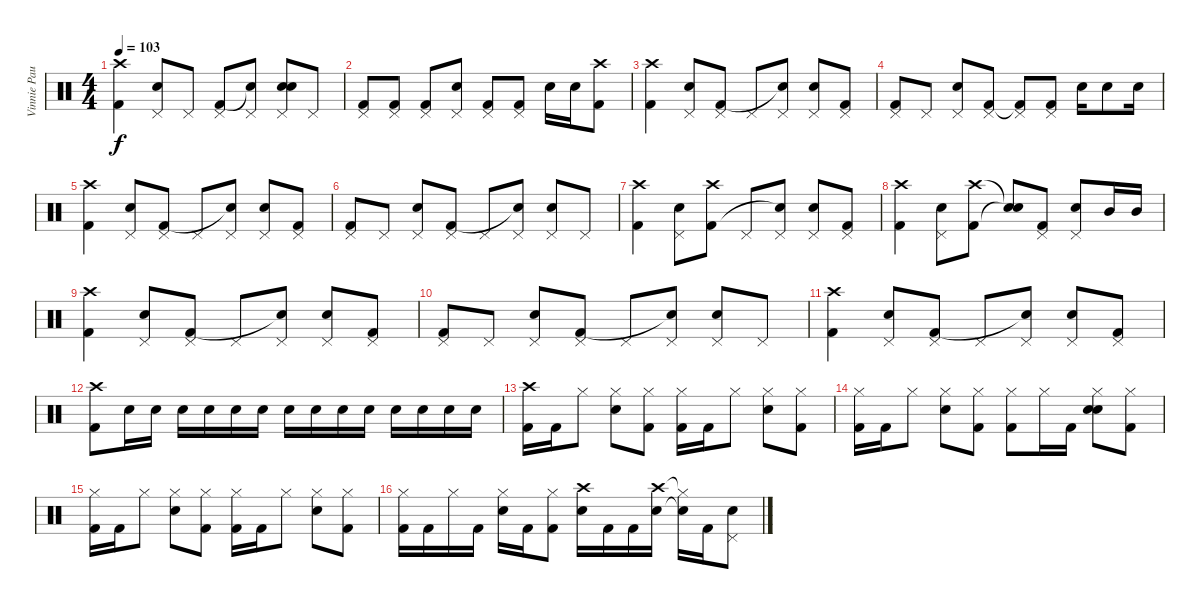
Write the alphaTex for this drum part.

\track ("Vinnie Paul" "Vinnie Pau") {instrument percussion}
\staff {score}
\articulation defaults
\ts (4 4)
\tempo 103
\clef neutral
\ks c
("Crash high (hit)" "Kick (hit) 2").4{dy f} ("Pedal Hi-Hat (hit)" "Electric Snare (hit)").8 "Pedal Hi-Hat (hit)".8 ("Pedal Hi-Hat (hit)" "Kick (hit) 2").8 ("Pedal Hi-Hat (hit)" "Snare (hit)"{t}).8 ("Pedal Hi-Hat (hit)" "Electric Snare (hit)" "Snare (hit)").8 "Pedal Hi-Hat (hit)".8 |
("Pedal Hi-Hat (hit)" "Kick (hit) 2").8 ("Pedal Hi-Hat (hit)" "Kick (hit) 2").8 ("Pedal Hi-Hat (hit)" "Kick (hit) 2").8 ("Pedal Hi-Hat (hit)" "Electric Snare (hit)").8 ("Pedal Hi-Hat (hit)" "Kick (hit) 2").8 ("Pedal Hi-Hat (hit)" "Kick (hit) 2").8 "Electric Snare (hit)".16 "Electric Snare (hit)".16 ("Crash high (hit)" "Kick (hit) 2").8 |
("Crash high (hit)" "Kick (hit) 2").4 ("Pedal Hi-Hat (hit)" "Electric Snare (hit)").8 ("Pedal Hi-Hat (hit)" "Kick (hit) 2").8 "Pedal Hi-Hat (hit)".8 ("Pedal Hi-Hat (hit)" "Snare (hit)"{t}).8 ("Pedal Hi-Hat (hit)" "Electric Snare (hit)").8 ("Pedal Hi-Hat (hit)" "Kick (hit) 2").8 |
("Pedal Hi-Hat (hit)" "Kick (hit) 2").8 "Pedal Hi-Hat (hit)".8 ("Pedal Hi-Hat (hit)" "Electric Snare (hit)").8 ("Pedal Hi-Hat (hit)" "Kick (hit) 2").8 ("Pedal Hi-Hat (hit)" "Kick (hit) 2"{t}).8 ("Pedal Hi-Hat (hit)" "Kick (hit) 2").8 "Electric Snare (hit)".16 "Electric Snare (hit)".8 "Electric Snare (hit)".16 |
("Crash high (hit)" "Kick (hit) 2").4 ("Pedal Hi-Hat (hit)" "Electric Snare (hit)").8 ("Pedal Hi-Hat (hit)" "Kick (hit) 2").8 "Pedal Hi-Hat (hit)".8 ("Pedal Hi-Hat (hit)" "Snare (hit)"{t}).8 ("Pedal Hi-Hat (hit)" "Electric Snare (hit)").8 ("Pedal Hi-Hat (hit)" "Kick (hit) 2").8 |
("Pedal Hi-Hat (hit)" "Kick (hit) 2").8 "Pedal Hi-Hat (hit)".8 ("Pedal Hi-Hat (hit)" "Electric Snare (hit)").8 ("Pedal Hi-Hat (hit)" "Kick (hit) 2").8 "Pedal Hi-Hat (hit)".8 ("Pedal Hi-Hat (hit)" "Snare (hit)"{t}).8 ("Pedal Hi-Hat (hit)" "Electric Snare (hit)").8 "Pedal Hi-Hat (hit)".8 |
("Crash high (hit)" "Kick (hit) 2").4 ("Pedal Hi-Hat (hit)" "Electric Snare (hit)").8 ("Crash high (hit)" "Kick (hit) 2").8 "Pedal Hi-Hat (hit)".8 ("Pedal Hi-Hat (hit)" "Snare (hit)"{t}).8 ("Pedal Hi-Hat (hit)" "Electric Snare (hit)").8 ("Pedal Hi-Hat (hit)" "Kick (hit) 2").8 |
("Crash high (hit)" "Kick (hit) 2").4 ("Pedal Hi-Hat (hit)" "Electric Snare (hit)").8 ("Crash high (hit)" "Kick (hit) 2").8 ("Snare (hit)"{t} "Snare (hit)"{t}).8 ("Pedal Hi-Hat (hit)" "Kick (hit) 2").8 ("Pedal Hi-Hat (hit)" "Electric Snare (hit)").8 "Mid Tom (hit)".16 "Mid Tom (hit)".16 |
("Crash high (hit)" "Kick (hit) 2").4 ("Pedal Hi-Hat (hit)" "Electric Snare (hit)").8 ("Pedal Hi-Hat (hit)" "Kick (hit) 2").8 "Pedal Hi-Hat (hit)".8 ("Pedal Hi-Hat (hit)" "Snare (hit)"{t}).8 ("Pedal Hi-Hat (hit)" "Electric Snare (hit)").8 ("Pedal Hi-Hat (hit)" "Kick (hit) 2").8 |
("Pedal Hi-Hat (hit)" "Kick (hit) 2").8 "Pedal Hi-Hat (hit)".8 ("Pedal Hi-Hat (hit)" "Electric Snare (hit)").8 ("Pedal Hi-Hat (hit)" "Kick (hit) 2").8 "Pedal Hi-Hat (hit)".8 ("Pedal Hi-Hat (hit)" "Snare (hit)"{t}).8 ("Pedal Hi-Hat (hit)" "Electric Snare (hit)").8 "Pedal Hi-Hat (hit)".8 |
("Crash high (hit)" "Kick (hit) 2").4 ("Pedal Hi-Hat (hit)" "Electric Snare (hit)").8 ("Pedal Hi-Hat (hit)" "Kick (hit) 2").8 "Pedal Hi-Hat (hit)".8 ("Pedal Hi-Hat (hit)" "Snare (hit)"{t}).8 ("Pedal Hi-Hat (hit)" "Electric Snare (hit)").8 ("Pedal Hi-Hat (hit)" "Kick (hit) 2").8 |
("Crash high (hit)" "Kick (hit) 2").8 "Electric Snare (hit)".16 "Electric Snare (hit)".16 "Electric Snare (hit)".16 "Electric Snare (hit)".16 "Electric Snare (hit)".16 "Electric Snare (hit)".16 "Electric Snare (hit)".16 "Electric Snare (hit)".16 "Electric Snare (hit)".16 "Electric Snare (hit)".16 "Electric Snare (hit)".16 "Electric Snare (hit)".16 "Electric Snare (hit)".16 "Electric Snare (hit)".16 |
("Crash high (hit)" "Kick (hit) 2").16 "Kick (hit) 2".16 "Hi-Hat (closed)".8 ("Hi-Hat (closed)" "Electric Snare (hit)").8 ("Hi-Hat (closed)" "Kick (hit) 2").8 ("Hi-Hat (closed)" "Kick (hit) 2").16 "Kick (hit) 2".16 "Hi-Hat (closed)".8 ("Hi-Hat (closed)" "Electric Snare (hit)").8 ("Hi-Hat (closed)" "Kick (hit) 2").8 |
("Hi-Hat (closed)" "Kick (hit) 2").16 "Kick (hit) 2".16 "Hi-Hat (closed)".8 ("Hi-Hat (closed)" "Electric Snare (hit)").8 ("Hi-Hat (closed)" "Kick (hit) 2").8 ("Hi-Hat (closed)" "Kick (hit) 2").8 "Hi-Hat (closed)".16 "Kick (hit) 2".16 ("Hi-Hat (closed)" "Electric Snare (hit)" "Snare (hit)").8 ("Hi-Hat (closed)" "Kick (hit) 2").8 |
("Hi-Hat (closed)" "Kick (hit) 2").16 "Kick (hit) 2".16 "Hi-Hat (closed)".8 ("Hi-Hat (closed)" "Electric Snare (hit)").8 ("Hi-Hat (closed)" "Kick (hit) 2").8 ("Hi-Hat (closed)" "Kick (hit) 2").16 "Kick (hit) 2".16 "Hi-Hat (closed)".8 ("Hi-Hat (closed)" "Electric Snare (hit)").8 ("Hi-Hat (closed)" "Kick (hit) 2").8 |
("Hi-Hat (closed)" "Kick (hit) 2").16 "Kick (hit) 2".16 "Hi-Hat (closed)".16 "Kick (hit) 2".16 ("Hi-Hat (closed)" "Electric Snare (hit)").16 "Kick (hit) 2".16 ("Hi-Hat (closed)" "Kick (hit) 2").8 ("Crash high (hit)" "Electric Snare (hit)").16 "Kick (hit) 2".16 "Kick (hit) 2".16 ("Crash high (hit)" "Electric Snare (hit)").16 ("Hi-Hat (closed)"{t} "Snare (hit)"{t}).16 "Kick (hit) 2".16 ("Pedal Hi-Hat (hit)" "Electric Snare (hit)").8
